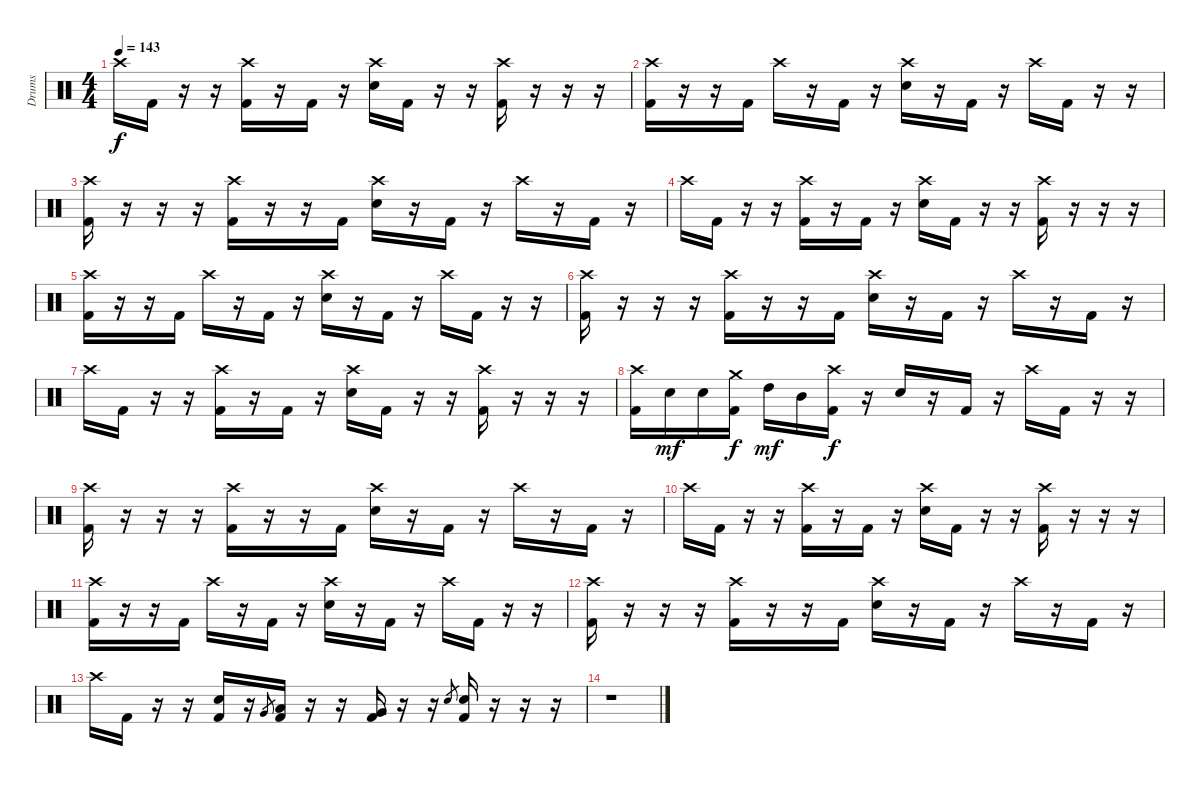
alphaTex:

\track ("Drums" "Drums") {instrument percussion}
\staff {score}
\articulation defaults
\ts (4 4)
\tempo 143
\clef neutral
\ks c "Crash high (hit)".16{dy f} "Kick (hit) 2".16
r.16 r.16 ("Crash high (hit)" "Kick (hit) 2").16 r.16 "Kick (hit) 2".16 r.16 ("Crash high (hit)" "Electric Snare (hit)").16 "Kick (hit) 2".16 r.16 r.16 ("Crash high (hit)" "Kick (hit) 2").16 r.16 r.16 r.16 |
("Crash high (hit)" "Kick (hit) 2").16 r.16 r.16 "Kick (hit) 2".16 "Crash high (hit)".16 r.16 "Kick (hit) 2".16 r.16 ("Crash high (hit)" "Electric Snare (hit)").16 r.16 "Kick (hit) 2".16 r.16 "Crash high (hit)".16 "Kick (hit) 2".16 r.16 r.16 |
("Crash high (hit)" "Kick (hit) 2").16 r.16 r.16 r.16 ("Crash high (hit)" "Kick (hit) 2").16 r.16 r.16 "Kick (hit) 2".16 ("Crash high (hit)" "Electric Snare (hit)").16 r.16 "Kick (hit) 2".16 r.16 "Crash high (hit)".16 r.16 "Kick (hit) 2".16 r.16 |
"Crash high (hit)".16 "Kick (hit) 2".16 r.16 r.16 ("Crash high (hit)" "Kick (hit) 2").16 r.16 "Kick (hit) 2".16 r.16 ("Crash high (hit)" "Electric Snare (hit)").16 "Kick (hit) 2".16 r.16 r.16 ("Crash high (hit)" "Kick (hit) 2").16 r.16 r.16 r.16 |
("Crash high (hit)" "Kick (hit) 2").16 r.16 r.16 "Kick (hit) 2".16 "Crash high (hit)".16 r.16 "Kick (hit) 2".16 r.16 ("Crash high (hit)" "Electric Snare (hit)").16 r.16 "Kick (hit) 2".16 r.16 "Crash high (hit)".16 "Kick (hit) 2".16 r.16 r.16 |
("Crash high (hit)" "Kick (hit) 2").16 r.16 r.16 r.16 ("Crash high (hit)" "Kick (hit) 2").16 r.16 r.16 "Kick (hit) 2".16 ("Crash high (hit)" "Electric Snare (hit)").16 r.16 "Kick (hit) 2".16 r.16 "Crash high (hit)".16 r.16 "Kick (hit) 2".16 r.16 |
"Crash high (hit)".16 "Kick (hit) 2".16 r.16 r.16 ("Crash high (hit)" "Kick (hit) 2").16 r.16 "Kick (hit) 2".16 r.16 ("Crash high (hit)" "Electric Snare (hit)").16 "Kick (hit) 2".16 r.16 r.16 ("Crash high (hit)" "Kick (hit) 2").16 r.16 r.16 r.16 |
("Crash high (hit)" "Kick (hit) 2").16 "Electric Snare (hit)".16{dy mf} "Electric Snare (hit)".16 ("Crash medium (hit)" "Kick (hit) 2").16{dy f} "High Tom (hit)".16{dy mf} "Mid Tom (hit)".16 ("Crash high (hit)" "Kick (hit) 2").16{dy f} r.16 "Electric Snare (hit)".16 r.16 "Kick (hit) 2".16 r.16 "Crash high (hit)".16 "Kick (hit) 2".16 r.16 r.16 |
("Crash high (hit)" "Kick (hit) 2").16 r.16 r.16 r.16 ("Crash high (hit)" "Kick (hit) 2").16 r.16 r.16 "Kick (hit) 2".16 ("Crash high (hit)" "Electric Snare (hit)").16 r.16 "Kick (hit) 2".16 r.16 "Crash high (hit)".16 r.16 "Kick (hit) 2".16 r.16 |
"Crash high (hit)".16 "Kick (hit) 2".16 r.16 r.16 ("Crash high (hit)" "Kick (hit) 2").16 r.16 "Kick (hit) 2".16 r.16 ("Crash high (hit)" "Electric Snare (hit)").16 "Kick (hit) 2".16 r.16 r.16 ("Crash high (hit)" "Kick (hit) 2").16 r.16 r.16 r.16 |
("Crash high (hit)" "Kick (hit) 2").16 r.16 r.16 "Kick (hit) 2".16 "Crash high (hit)".16 r.16 "Kick (hit) 2".16 r.16 ("Crash high (hit)" "Electric Snare (hit)").16 r.16 "Kick (hit) 2".16 r.16 "Crash high (hit)".16 "Kick (hit) 2".16 r.16 r.16 |
("Crash high (hit)" "Kick (hit) 2").16 r.16 r.16 r.16 ("Crash high (hit)" "Kick (hit) 2").16 r.16 r.16 "Kick (hit) 2".16 ("Crash high (hit)" "Electric Snare (hit)").16 r.16 "Kick (hit) 2".16 r.16 "Crash high (hit)".16 r.16 "Kick (hit) 2".16 r.16 |
"Crash high (hit)".16 "Kick (hit) 2".16 r.16 r.16 ("Electric Snare (hit)" "Kick (hit) 2").16 r.16 "Very Low Tom (hit)".8{gr} ("Low Tom (hit)" "Kick (hit) 2").16 r.16 r.16 ("Very Low Tom (hit)" "Kick (hit) 2").16 r.16 r.16 "Electric Snare (hit)".8{gr} ("Electric Snare (hit)" "Kick (hit) 2").16 r.16 r.16 r.16 |
r.1
